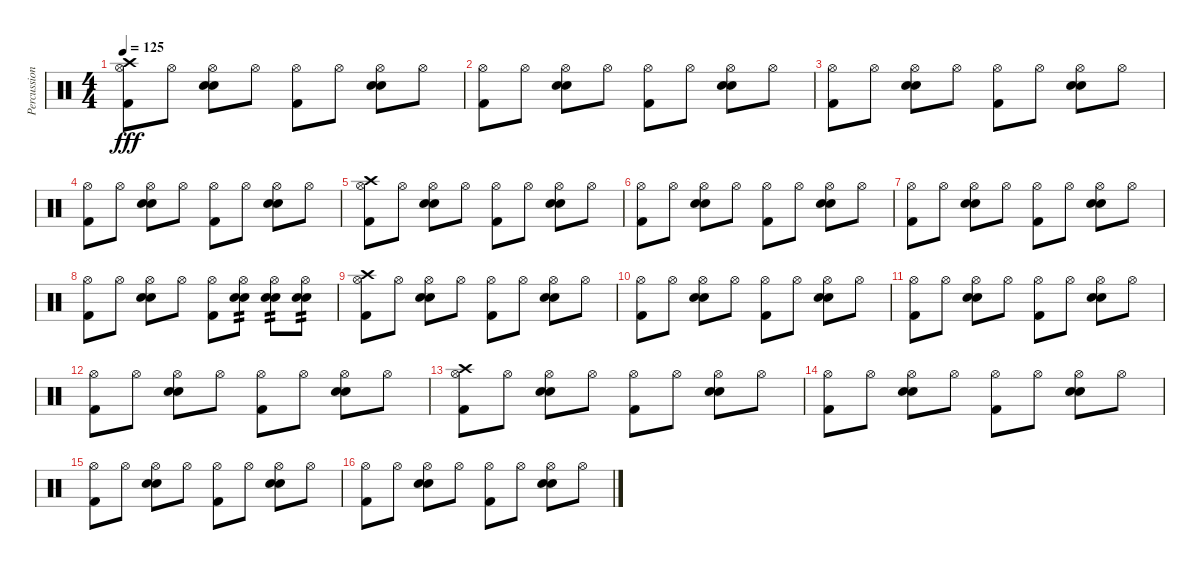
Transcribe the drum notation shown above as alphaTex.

\track ("Percussion" "Percussion") {instrument percussion}
\staff {score}
\articulation defaults
\ts (4 4)
\tempo 125
\clef neutral
\ks c
("Crash high (hit)" "Hi-Hat (open)" "Kick (hit) 2").8{dy fff} "Hi-Hat (open)".8 ("Electric Snare (hit)" "Snare (hit) 2" "Hi-Hat (open)").8 "Hi-Hat (open)".8 ("Hi-Hat (open)" "Kick (hit) 2").8 "Hi-Hat (open)".8 ("Electric Snare (hit)" "Snare (hit) 2" "Hi-Hat (open)").8 "Hi-Hat (open)".8 |
("Hi-Hat (open)" "Kick (hit) 2").8 "Hi-Hat (open)".8 ("Electric Snare (hit)" "Snare (hit) 2" "Hi-Hat (open)").8 "Hi-Hat (open)".8 ("Hi-Hat (open)" "Kick (hit) 2").8 "Hi-Hat (open)".8 ("Electric Snare (hit)" "Snare (hit) 2" "Hi-Hat (open)").8 "Hi-Hat (open)".8 |
("Hi-Hat (open)" "Kick (hit) 2").8 "Hi-Hat (open)".8 ("Electric Snare (hit)" "Snare (hit) 2" "Hi-Hat (open)").8 "Hi-Hat (open)".8 ("Hi-Hat (open)" "Kick (hit) 2").8 "Hi-Hat (open)".8 ("Electric Snare (hit)" "Snare (hit) 2" "Hi-Hat (open)").8 "Hi-Hat (open)".8 |
("Hi-Hat (open)" "Kick (hit) 2").8 "Hi-Hat (open)".8 ("Electric Snare (hit)" "Snare (hit) 2" "Hi-Hat (open)").8 "Hi-Hat (open)".8 ("Hi-Hat (open)" "Kick (hit) 2").8 "Hi-Hat (open)".8 ("Electric Snare (hit)" "Snare (hit) 2" "Hi-Hat (open)").8 "Hi-Hat (open)".8 |
("Crash high (hit)" "Hi-Hat (open)" "Kick (hit) 2").8 "Hi-Hat (open)".8 ("Electric Snare (hit)" "Snare (hit) 2" "Hi-Hat (open)").8 "Hi-Hat (open)".8 ("Hi-Hat (open)" "Kick (hit) 2").8 "Hi-Hat (open)".8 ("Electric Snare (hit)" "Snare (hit) 2" "Hi-Hat (open)").8 "Hi-Hat (open)".8 |
("Hi-Hat (open)" "Kick (hit) 2").8 "Hi-Hat (open)".8 ("Electric Snare (hit)" "Snare (hit) 2" "Hi-Hat (open)").8 "Hi-Hat (open)".8 ("Hi-Hat (open)" "Kick (hit) 2").8 "Hi-Hat (open)".8 ("Electric Snare (hit)" "Snare (hit) 2" "Hi-Hat (open)").8 "Hi-Hat (open)".8 |
("Hi-Hat (open)" "Kick (hit) 2").8 "Hi-Hat (open)".8 ("Electric Snare (hit)" "Snare (hit) 2" "Hi-Hat (open)").8 "Hi-Hat (open)".8 ("Hi-Hat (open)" "Kick (hit) 2").8 "Hi-Hat (open)".8 ("Electric Snare (hit)" "Snare (hit) 2" "Hi-Hat (open)").8 "Hi-Hat (open)".8 |
("Hi-Hat (open)" "Kick (hit) 2").8 "Hi-Hat (open)".8 ("Electric Snare (hit)" "Snare (hit) 2" "Hi-Hat (open)").8 "Hi-Hat (open)".8 ("Hi-Hat (open)" "Kick (hit) 2").8 ("Electric Snare (hit)" "Snare (hit) 2" "Hi-Hat (open)").8{tp 2} ("Electric Snare (hit)" "Snare (hit) 2" "Hi-Hat (open)").8{tp 2} ("Electric Snare (hit)" "Snare (hit) 2" "Hi-Hat (open)").8{tp 2} |
("Crash high (hit)" "Hi-Hat (open)" "Kick (hit) 2").8 "Hi-Hat (open)".8 ("Electric Snare (hit)" "Snare (hit) 2" "Hi-Hat (open)").8 "Hi-Hat (open)".8 ("Hi-Hat (open)" "Kick (hit) 2").8 "Hi-Hat (open)".8 ("Electric Snare (hit)" "Snare (hit) 2" "Hi-Hat (open)").8 "Hi-Hat (open)".8 |
("Hi-Hat (open)" "Kick (hit) 2").8 "Hi-Hat (open)".8 ("Electric Snare (hit)" "Snare (hit) 2" "Hi-Hat (open)").8 "Hi-Hat (open)".8 ("Hi-Hat (open)" "Kick (hit) 2").8 "Hi-Hat (open)".8 ("Electric Snare (hit)" "Snare (hit) 2" "Hi-Hat (open)").8 "Hi-Hat (open)".8 |
("Hi-Hat (open)" "Kick (hit) 2").8 "Hi-Hat (open)".8 ("Electric Snare (hit)" "Snare (hit) 2" "Hi-Hat (open)").8 "Hi-Hat (open)".8 ("Hi-Hat (open)" "Kick (hit) 2").8 "Hi-Hat (open)".8 ("Electric Snare (hit)" "Snare (hit) 2" "Hi-Hat (open)").8 "Hi-Hat (open)".8 |
("Hi-Hat (open)" "Kick (hit) 2").8 "Hi-Hat (open)".8 ("Electric Snare (hit)" "Snare (hit) 2" "Hi-Hat (open)").8 "Hi-Hat (open)".8 ("Hi-Hat (open)" "Kick (hit) 2").8 "Hi-Hat (open)".8 ("Electric Snare (hit)" "Snare (hit) 2" "Hi-Hat (open)").8 "Hi-Hat (open)".8 |
("Crash high (hit)" "Hi-Hat (open)" "Kick (hit) 2").8 "Hi-Hat (open)".8 ("Electric Snare (hit)" "Snare (hit) 2" "Hi-Hat (open)").8 "Hi-Hat (open)".8 ("Hi-Hat (open)" "Kick (hit) 2").8 "Hi-Hat (open)".8 ("Electric Snare (hit)" "Snare (hit) 2" "Hi-Hat (open)").8 "Hi-Hat (open)".8 |
("Hi-Hat (open)" "Kick (hit) 2").8 "Hi-Hat (open)".8 ("Electric Snare (hit)" "Snare (hit) 2" "Hi-Hat (open)").8 "Hi-Hat (open)".8 ("Hi-Hat (open)" "Kick (hit) 2").8 "Hi-Hat (open)".8 ("Electric Snare (hit)" "Snare (hit) 2" "Hi-Hat (open)").8 "Hi-Hat (open)".8 |
("Hi-Hat (open)" "Kick (hit) 2").8 "Hi-Hat (open)".8 ("Electric Snare (hit)" "Snare (hit) 2" "Hi-Hat (open)").8 "Hi-Hat (open)".8 ("Hi-Hat (open)" "Kick (hit) 2").8 "Hi-Hat (open)".8 ("Electric Snare (hit)" "Snare (hit) 2" "Hi-Hat (open)").8 "Hi-Hat (open)".8 |
("Hi-Hat (open)" "Kick (hit) 2").8 "Hi-Hat (open)".8 ("Electric Snare (hit)" "Snare (hit) 2" "Hi-Hat (open)").8 "Hi-Hat (open)".8 ("Hi-Hat (open)" "Kick (hit) 2").8 "Hi-Hat (open)".8 ("Electric Snare (hit)" "Snare (hit) 2" "Hi-Hat (open)").8 "Hi-Hat (open)".8
